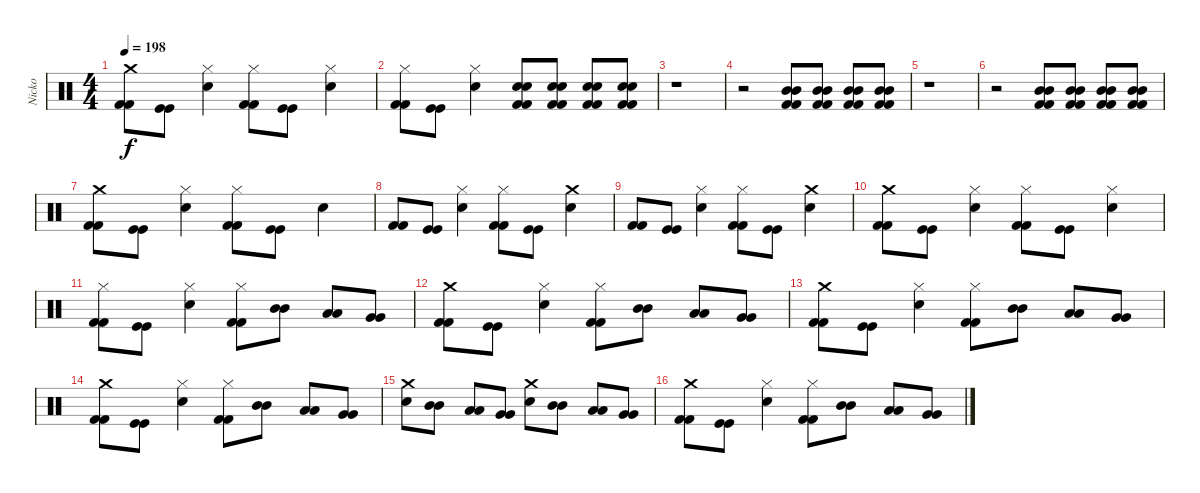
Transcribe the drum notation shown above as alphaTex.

\track ("Nicko" "Nicko") {instrument percussion}
\staff {score}
\articulation defaults
\ts (4 4)
\tempo 198
\clef neutral
\ks c
("Crash medium (hit)" "Kick (hit) 2" "Kick (hit) 2").8{dy f} ("Kick (hit)" "Kick (hit)").8 ("Hi-Hat (closed)" "Electric Snare (hit)").4 ("Hi-Hat (closed)" "Kick (hit) 2" "Kick (hit) 2").8 ("Kick (hit)" "Kick (hit)").8 ("Hi-Hat (closed)" "Electric Snare (hit)").4 |
("Hi-Hat (closed)" "Kick (hit) 2" "Kick (hit) 2").8 ("Kick (hit)" "Kick (hit)").8 ("Hi-Hat (closed)" "Electric Snare (hit)").4 ("Electric Snare (hit)" "Electric Snare (hit)" "Kick (hit) 2" "Kick (hit) 2").8 ("Electric Snare (hit)" "Electric Snare (hit)" "Kick (hit) 2" "Kick (hit) 2").8 ("Electric Snare (hit)" "Electric Snare (hit)" "Kick (hit) 2" "Kick (hit) 2").8 ("Electric Snare (hit)" "Electric Snare (hit)" "Kick (hit) 2" "Kick (hit) 2").8 |
r.1 |
r.2 ("Mid Tom (hit)" "Mid Tom (hit)" "Kick (hit) 2" "Kick (hit) 2").8 ("Mid Tom (hit)" "Mid Tom (hit)" "Kick (hit) 2" "Kick (hit) 2").8 ("Mid Tom (hit)" "Mid Tom (hit)" "Kick (hit) 2" "Kick (hit) 2").8 ("Mid Tom (hit)" "Mid Tom (hit)" "Kick (hit) 2" "Kick (hit) 2").8 |
r.1 |
r.2 ("Mid Tom (hit)" "Mid Tom (hit)" "Kick (hit) 2" "Kick (hit) 2").8 ("Mid Tom (hit)" "Mid Tom (hit)" "Kick (hit) 2" "Kick (hit) 2").8 ("Mid Tom (hit)" "Mid Tom (hit)" "Kick (hit) 2" "Kick (hit) 2").8 ("Mid Tom (hit)" "Mid Tom (hit)" "Kick (hit) 2" "Kick (hit) 2").8 |
("Crash medium (hit)" "Kick (hit) 2" "Kick (hit) 2").8 ("Kick (hit)" "Kick (hit)").8 ("Hi-Hat (closed)" "Electric Snare (hit)").4 ("Hi-Hat (closed)" "Kick (hit) 2" "Kick (hit) 2").8 ("Kick (hit)" "Kick (hit)").8 "Electric Snare (hit)".4 |
("Kick (hit) 2" "Kick (hit) 2").8 ("Kick (hit)" "Kick (hit)").8 ("Hi-Hat (closed)" "Electric Snare (hit)").4 ("Hi-Hat (closed)" "Kick (hit) 2" "Kick (hit) 2").8 ("Kick (hit)" "Kick (hit)").8 ("Crash medium (hit)" "Electric Snare (hit)").4 |
("Kick (hit) 2" "Kick (hit) 2").8 ("Kick (hit)" "Kick (hit)").8 ("Hi-Hat (closed)" "Electric Snare (hit)").4 ("Hi-Hat (closed)" "Kick (hit) 2" "Kick (hit) 2").8 ("Kick (hit)" "Kick (hit)").8 ("Crash medium (hit)" "Electric Snare (hit)").4 |
("Crash medium (hit)" "Kick (hit) 2" "Kick (hit) 2").8 ("Kick (hit)" "Kick (hit)").8 ("Hi-Hat (closed)" "Electric Snare (hit)").4 ("Hi-Hat (closed)" "Kick (hit) 2" "Kick (hit) 2").8 ("Kick (hit)" "Kick (hit)").8 ("Hi-Hat (closed)" "Electric Snare (hit)").4 |
("Hi-Hat (closed)" "Kick (hit) 2" "Kick (hit) 2").8 ("Kick (hit)" "Kick (hit)").8 ("Hi-Hat (closed)" "Electric Snare (hit)").4 ("Hi-Hat (closed)" "Kick (hit) 2" "Kick (hit) 2").8 ("Mid Tom (hit)" "Mid Tom (hit)").8 ("Low Tom (hit)" "Low Tom (hit)").8 ("Very Low Tom (hit)" "Very Low Tom (hit)").8 |
("Crash medium (hit)" "Kick (hit) 2" "Kick (hit) 2").8 ("Kick (hit)" "Kick (hit)").8 ("Hi-Hat (closed)" "Electric Snare (hit)").4 ("Hi-Hat (closed)" "Kick (hit) 2" "Kick (hit) 2").8 ("Mid Tom (hit)" "Mid Tom (hit)").8 ("Low Tom (hit)" "Low Tom (hit)").8 ("Very Low Tom (hit)" "Very Low Tom (hit)").8 |
("Crash medium (hit)" "Kick (hit) 2" "Kick (hit) 2").8 ("Kick (hit)" "Kick (hit)").8 ("Hi-Hat (closed)" "Electric Snare (hit)").4 ("Hi-Hat (closed)" "Kick (hit) 2" "Kick (hit) 2").8 ("Mid Tom (hit)" "Mid Tom (hit)").8 ("Low Tom (hit)" "Low Tom (hit)").8 ("Very Low Tom (hit)" "Very Low Tom (hit)").8 |
("Crash medium (hit)" "Kick (hit) 2" "Kick (hit) 2").8 ("Kick (hit)" "Kick (hit)").8 ("Hi-Hat (closed)" "Electric Snare (hit)").4 ("Hi-Hat (closed)" "Kick (hit) 2" "Kick (hit) 2").8 ("Mid Tom (hit)" "Mid Tom (hit)").8 ("Low Tom (hit)" "Low Tom (hit)").8 ("Very Low Tom (hit)" "Very Low Tom (hit)").8 |
("Crash medium (hit)" "Electric Snare (hit)").8 ("Mid Tom (hit)" "Mid Tom (hit)").8 ("Low Tom (hit)" "Low Tom (hit)").8 ("Very Low Tom (hit)" "Very Low Tom (hit)").8 ("Crash medium (hit)" "Electric Snare (hit)").8 ("Mid Tom (hit)" "Mid Tom (hit)").8 ("Low Tom (hit)" "Low Tom (hit)").8 ("Very Low Tom (hit)" "Very Low Tom (hit)").8 |
("Crash medium (hit)" "Kick (hit) 2" "Kick (hit) 2").8 ("Kick (hit)" "Kick (hit)").8 ("Hi-Hat (closed)" "Electric Snare (hit)").4 ("Hi-Hat (closed)" "Kick (hit) 2" "Kick (hit) 2").8 ("Mid Tom (hit)" "Mid Tom (hit)").8 ("Low Tom (hit)" "Low Tom (hit)").8 ("Very Low Tom (hit)" "Very Low Tom (hit)").8
